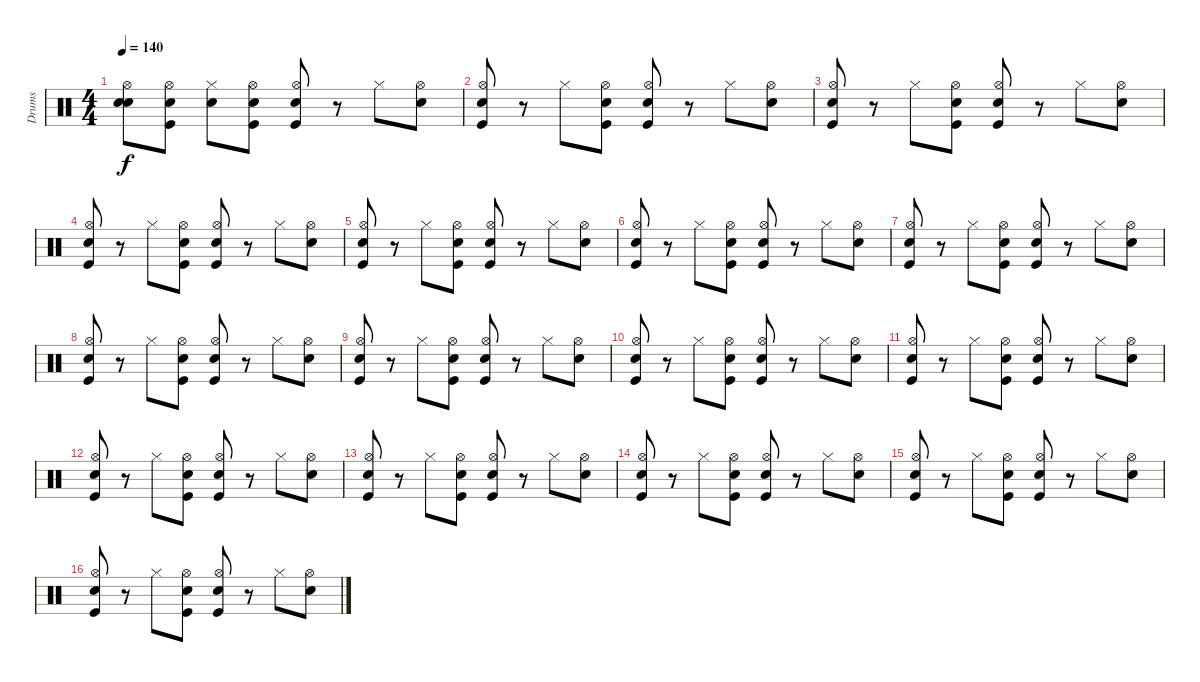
\track ("Drums" "Drums") {instrument percussion}
\staff {score}
\articulation defaults
\ts (4 4)
\tempo 140
\clef neutral
\ks c
("Snare (hit)" "Snare (hit) 2" "Hi-Hat (open)").8{dy f} ("Snare (hit)" "Kick (hit)" "Hi-Hat (open)").8 ("Snare (hit)" "Hi-Hat (closed)").8 ("Snare (hit)" "Kick (hit)" "Hi-Hat (open)").8 ("Snare (hit)" "Kick (hit)" "Hi-Hat (open)").8 r.8 "Hi-Hat (closed)".8 ("Snare (hit)" "Hi-Hat (open)").8 |
("Snare (hit)" "Kick (hit)" "Hi-Hat (open)").8 r.8 "Hi-Hat (closed)".8 ("Snare (hit)" "Kick (hit)" "Hi-Hat (open)").8 ("Snare (hit)" "Kick (hit)" "Hi-Hat (open)").8 r.8 "Hi-Hat (closed)".8 ("Snare (hit)" "Hi-Hat (open)").8 |
("Snare (hit)" "Kick (hit)" "Hi-Hat (open)").8 r.8 "Hi-Hat (closed)".8 ("Snare (hit)" "Kick (hit)" "Hi-Hat (open)").8 ("Snare (hit)" "Kick (hit)" "Hi-Hat (open)").8 r.8 "Hi-Hat (closed)".8 ("Snare (hit)" "Hi-Hat (open)").8 |
("Snare (hit)" "Kick (hit)" "Hi-Hat (open)").8 r.8 "Hi-Hat (closed)".8 ("Snare (hit)" "Kick (hit)" "Hi-Hat (open)").8 ("Snare (hit)" "Kick (hit)" "Hi-Hat (open)").8 r.8 "Hi-Hat (closed)".8 ("Snare (hit)" "Hi-Hat (open)").8 |
("Snare (hit)" "Kick (hit)" "Hi-Hat (open)").8 r.8 "Hi-Hat (closed)".8 ("Snare (hit)" "Kick (hit)" "Hi-Hat (open)").8 ("Snare (hit)" "Kick (hit)" "Hi-Hat (open)").8 r.8 "Hi-Hat (closed)".8 ("Snare (hit)" "Hi-Hat (open)").8 |
("Snare (hit)" "Kick (hit)" "Hi-Hat (open)").8 r.8 "Hi-Hat (closed)".8 ("Snare (hit)" "Kick (hit)" "Hi-Hat (open)").8 ("Snare (hit)" "Kick (hit)" "Hi-Hat (open)").8 r.8 "Hi-Hat (closed)".8 ("Snare (hit)" "Hi-Hat (open)").8 |
("Snare (hit)" "Kick (hit)" "Hi-Hat (open)").8 r.8 "Hi-Hat (closed)".8 ("Snare (hit)" "Kick (hit)" "Hi-Hat (open)").8 ("Snare (hit)" "Kick (hit)" "Hi-Hat (open)").8 r.8 "Hi-Hat (closed)".8 ("Snare (hit)" "Hi-Hat (open)").8 |
("Snare (hit)" "Kick (hit)" "Hi-Hat (open)").8 r.8 "Hi-Hat (closed)".8 ("Snare (hit)" "Kick (hit)" "Hi-Hat (open)").8 ("Snare (hit)" "Kick (hit)" "Hi-Hat (open)").8 r.8 "Hi-Hat (closed)".8 ("Snare (hit)" "Hi-Hat (open)").8 |
("Snare (hit)" "Kick (hit)" "Hi-Hat (open)").8 r.8 "Hi-Hat (closed)".8 ("Snare (hit)" "Kick (hit)" "Hi-Hat (open)").8 ("Snare (hit)" "Kick (hit)" "Hi-Hat (open)").8 r.8 "Hi-Hat (closed)".8 ("Snare (hit)" "Hi-Hat (open)").8 |
("Snare (hit)" "Kick (hit)" "Hi-Hat (open)").8 r.8 "Hi-Hat (closed)".8 ("Snare (hit)" "Kick (hit)" "Hi-Hat (open)").8 ("Snare (hit)" "Kick (hit)" "Hi-Hat (open)").8 r.8 "Hi-Hat (closed)".8 ("Snare (hit)" "Hi-Hat (open)").8 |
("Snare (hit)" "Kick (hit)" "Hi-Hat (open)").8 r.8 "Hi-Hat (closed)".8 ("Snare (hit)" "Kick (hit)" "Hi-Hat (open)").8 ("Snare (hit)" "Kick (hit)" "Hi-Hat (open)").8 r.8 "Hi-Hat (closed)".8 ("Snare (hit)" "Hi-Hat (open)").8 |
("Snare (hit)" "Kick (hit)" "Hi-Hat (open)").8 r.8 "Hi-Hat (closed)".8 ("Snare (hit)" "Kick (hit)" "Hi-Hat (open)").8 ("Snare (hit)" "Kick (hit)" "Hi-Hat (open)").8 r.8 "Hi-Hat (closed)".8 ("Snare (hit)" "Hi-Hat (open)").8 |
("Snare (hit)" "Kick (hit)" "Hi-Hat (open)").8 r.8 "Hi-Hat (closed)".8 ("Snare (hit)" "Kick (hit)" "Hi-Hat (open)").8 ("Snare (hit)" "Kick (hit)" "Hi-Hat (open)").8 r.8 "Hi-Hat (closed)".8 ("Snare (hit)" "Hi-Hat (open)").8 |
("Snare (hit)" "Kick (hit)" "Hi-Hat (open)").8 r.8 "Hi-Hat (closed)".8 ("Snare (hit)" "Kick (hit)" "Hi-Hat (open)").8 ("Snare (hit)" "Kick (hit)" "Hi-Hat (open)").8 r.8 "Hi-Hat (closed)".8 ("Snare (hit)" "Hi-Hat (open)").8 |
("Snare (hit)" "Kick (hit)" "Hi-Hat (open)").8 r.8 "Hi-Hat (closed)".8 ("Snare (hit)" "Kick (hit)" "Hi-Hat (open)").8 ("Snare (hit)" "Kick (hit)" "Hi-Hat (open)").8 r.8 "Hi-Hat (closed)".8 ("Snare (hit)" "Hi-Hat (open)").8 |
("Snare (hit)" "Kick (hit)" "Hi-Hat (open)").8 r.8 "Hi-Hat (closed)".8 ("Snare (hit)" "Kick (hit)" "Hi-Hat (open)").8 ("Snare (hit)" "Kick (hit)" "Hi-Hat (open)").8 r.8 "Hi-Hat (closed)".8 ("Snare (hit)" "Hi-Hat (open)").8
